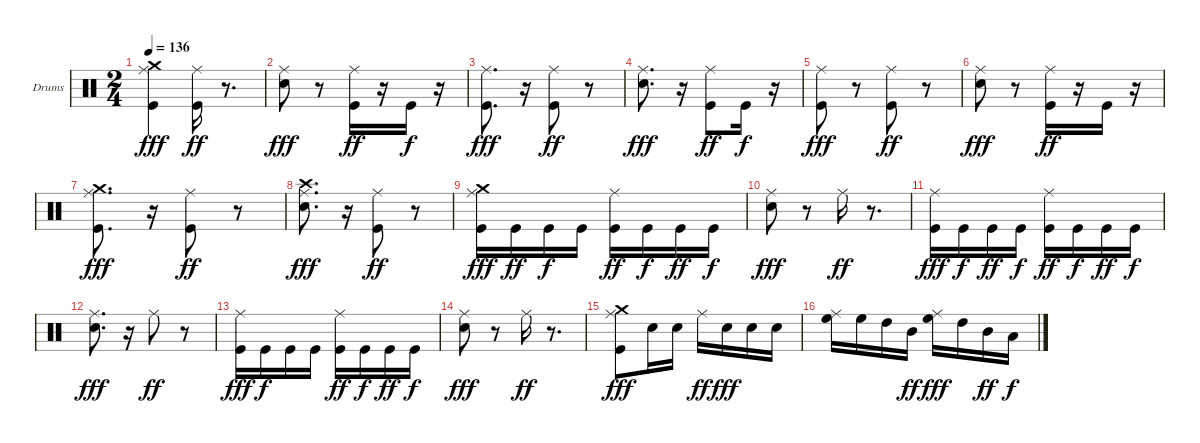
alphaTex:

\bracketExtendMode groupsimilarinstruments
\firstSystemTrackNameOrientation horizontal
\otherSystemsTrackNameOrientation horizontal
\track ("Drumkit" "Drums") {solo instrument percussion}
\staff {score}
\articulation defaults
\ts (2 4)
\tempo 136
\clef neutral
\ks c
("Crash medium (hit)" "Ride (middle)" "Kick (hit)").4{dy fff} ("Ride (middle)" "Kick (hit)").16{dy ff} r.8{d} |
("Ride (middle)" "Snare (hit) 2").8{dy fff} r.8 ("Ride (middle)" "Kick (hit)").16{dy ff} r.16 "Kick (hit)".16{dy f} r.16 |
("Ride (middle)" "Kick (hit)").8{d dy fff} r.16 ("Ride (middle)" "Kick (hit)").8{dy ff} r.8 |
("Ride (middle)" "Snare (hit) 2").8{d dy fff} r.16 ("Ride (middle)" "Kick (hit)").8{dy ff} "Kick (hit)".16{dy f} r.16 |
("Ride (middle)" "Kick (hit)").8{dy fff} r.8 ("Ride (middle)" "Kick (hit)").8{dy ff} r.8 |
("Ride (middle)" "Snare (hit) 2").8{dy fff} r.8 ("Ride (middle)" "Kick (hit)").16{dy ff} r.16 "Kick (hit)".16 r.16 |
("Crash medium (hit)" "Ride (middle)" "Kick (hit)").8{d dy fff} r.16 ("Ride (middle)" "Kick (hit)").8{dy ff} r.8 |
("Crash high (hit)" "Ride (middle)" "Snare (hit) 2").8{d dy fff} r.16 ("Ride (middle)" "Kick (hit)").8{dy ff} r.8 |
("Crash medium (hit)" "Ride (middle)" "Kick (hit)").16{dy fff} "Kick (hit)".16{dy ff} "Kick (hit)".16{dy f} "Kick (hit)".16 ("Ride (middle)" "Kick (hit)").16{dy ff} "Kick (hit)".16{dy f} "Kick (hit)".16{dy ff} "Kick (hit)".16{dy f} |
("Ride (middle)" "Snare (hit) 2").8{dy fff} r.8 "Ride (middle)".16{dy ff} r.8{d} |
("Ride (middle)" "Kick (hit)").16{dy fff} "Kick (hit)".16{dy f} "Kick (hit)".16{dy ff} "Kick (hit)".16{dy f} ("Ride (middle)" "Kick (hit)").16{dy ff} "Kick (hit)".16{dy f} "Kick (hit)".16{dy ff} "Kick (hit)".16{dy f} |
("Ride (middle)" "Snare (hit) 2").8{d dy fff} r.16 "Ride (middle)".8{dy ff} r.8 |
("Ride (middle)" "Kick (hit)").16{dy fff} "Kick (hit)".16{dy f} "Kick (hit)".16 "Kick (hit)".16 ("Ride (middle)" "Kick (hit)").16{dy ff} "Kick (hit)".16{dy f} "Kick (hit)".16{dy ff} "Kick (hit)".16{dy f} |
("Ride (middle)" "Snare (hit) 2").8{dy fff} r.8 "Ride (middle)".16{dy ff} r.8{d} |
("Crash medium (hit)" "Kick (hit)" "Ride (middle)").8{dy fff} "Snare (hit) 2".16 "Snare (hit) 2".16 "Ride (middle)".16{dy ff} "Snare (hit) 2".16{dy fff} "Snare (hit) 2".16 "Snare (hit) 2".16 |
("High Floor Tom (hit)" "Ride (middle)").16 "High Floor Tom (hit)".16 "High Tom (hit)".16 "Mid Tom (hit)".16{dy ff} ("High Floor Tom (hit)" "Ride (middle)").16{dy fff} "High Tom (hit)".16 "Mid Tom (hit)".16{dy ff} "Low Tom (hit)".16{dy f}
